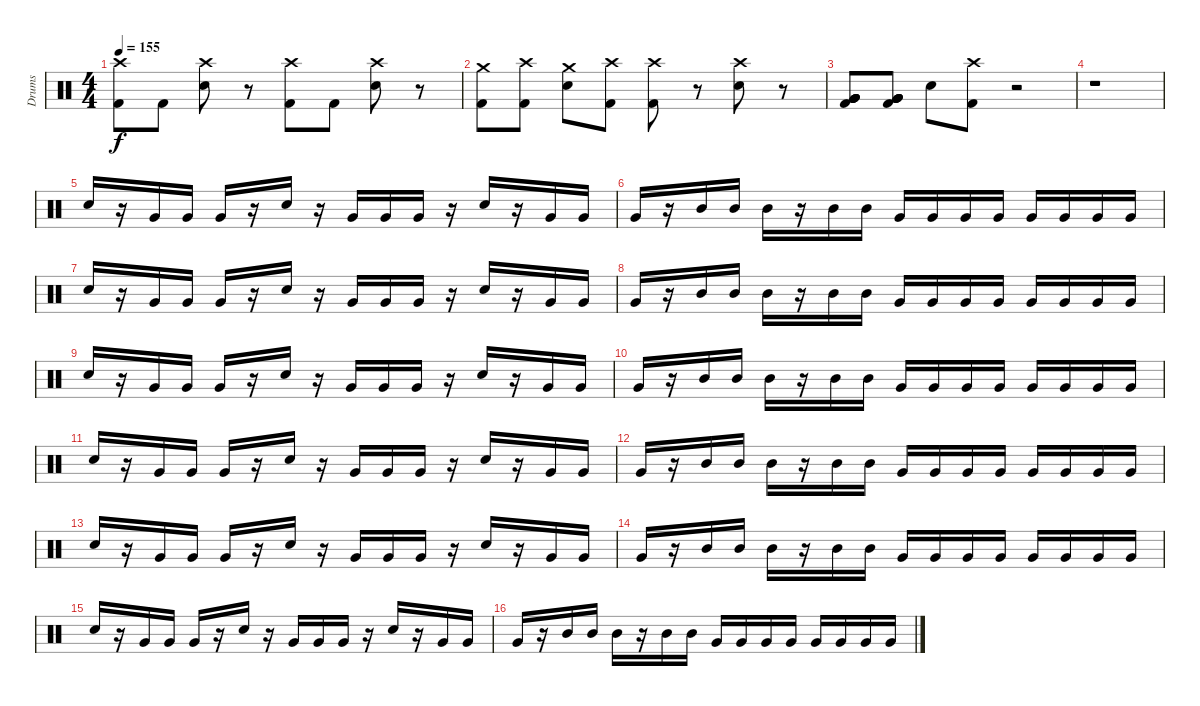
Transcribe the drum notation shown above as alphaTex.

\track ("Drums" "Drums") {instrument percussion}
\staff {score}
\articulation defaults
\ts (4 4)
\tempo 155
\clef neutral
\ks c
("Crash high (hit)" "Kick (hit) 2").8{dy f} "Kick (hit) 2".8 ("Crash high (hit)" "Snare (hit) 2").8 r.8 ("Crash high (hit)" "Kick (hit) 2").8 "Kick (hit) 2".8 ("Crash high (hit)" "Snare (hit) 2").8 r.8 |
("Crash medium (hit)" "Kick (hit) 2").8 ("Crash high (hit)" "Kick (hit) 2").8 ("Crash medium (hit)" "Snare (hit) 2").8 ("Crash high (hit)" "Kick (hit) 2").8 ("Crash high (hit)" "Kick (hit) 2").8 r.8 ("Crash high (hit)" "Snare (hit) 2").8 r.8 |
("Kick (hit) 2" "Very Low Tom (hit)" "Very Low Tom (hit)" "Very Low Tom (hit)" "Very Low Tom (hit)").8 ("Kick (hit) 2" "Very Low Tom (hit)" "Very Low Tom (hit)" "Very Low Tom (hit)" "Very Low Tom (hit)").8 "Snare (hit) 2".8 ("Kick (hit) 2" "Crash high (hit)").8 r.2 |
r.1 |
"Snare (hit) 2".16 r.16 "Very Low Tom (hit)".16 "Very Low Tom (hit)".16 "Very Low Tom (hit)".16 r.16 "Snare (hit) 2".16 r.16 "Very Low Tom (hit)".16 "Very Low Tom (hit)".16 "Very Low Tom (hit)".16 r.16 "Snare (hit) 2".16 r.16 "Very Low Tom (hit)".16 "Very Low Tom (hit)".16 |
"Very Low Tom (hit)".16 r.16 "Mid Tom (hit)".16 "Mid Tom (hit)".16 "Mid Tom (hit)".16 r.16 "Mid Tom (hit)".16 "Mid Tom (hit)".16 "Very Low Tom (hit)".16 "Very Low Tom (hit)".16 "Very Low Tom (hit)".16 "Very Low Tom (hit)".16 "Very Low Tom (hit)".16 "Very Low Tom (hit)".16 "Very Low Tom (hit)".16 "Very Low Tom (hit)".16 |
"Snare (hit) 2".16 r.16 "Very Low Tom (hit)".16 "Very Low Tom (hit)".16 "Very Low Tom (hit)".16 r.16 "Snare (hit) 2".16 r.16 "Very Low Tom (hit)".16 "Very Low Tom (hit)".16 "Very Low Tom (hit)".16 r.16 "Snare (hit) 2".16 r.16 "Very Low Tom (hit)".16 "Very Low Tom (hit)".16 |
"Very Low Tom (hit)".16 r.16 "Mid Tom (hit)".16 "Mid Tom (hit)".16 "Mid Tom (hit)".16 r.16 "Mid Tom (hit)".16 "Mid Tom (hit)".16 "Very Low Tom (hit)".16 "Very Low Tom (hit)".16 "Very Low Tom (hit)".16 "Very Low Tom (hit)".16 "Very Low Tom (hit)".16 "Very Low Tom (hit)".16 "Very Low Tom (hit)".16 "Very Low Tom (hit)".16 |
"Snare (hit) 2".16 r.16 "Very Low Tom (hit)".16 "Very Low Tom (hit)".16 "Very Low Tom (hit)".16 r.16 "Snare (hit) 2".16 r.16 "Very Low Tom (hit)".16 "Very Low Tom (hit)".16 "Very Low Tom (hit)".16 r.16 "Snare (hit) 2".16 r.16 "Very Low Tom (hit)".16 "Very Low Tom (hit)".16 |
"Very Low Tom (hit)".16 r.16 "Mid Tom (hit)".16 "Mid Tom (hit)".16 "Mid Tom (hit)".16 r.16 "Mid Tom (hit)".16 "Mid Tom (hit)".16 "Very Low Tom (hit)".16 "Very Low Tom (hit)".16 "Very Low Tom (hit)".16 "Very Low Tom (hit)".16 "Very Low Tom (hit)".16 "Very Low Tom (hit)".16 "Very Low Tom (hit)".16 "Very Low Tom (hit)".16 |
"Snare (hit) 2".16 r.16 "Very Low Tom (hit)".16 "Very Low Tom (hit)".16 "Very Low Tom (hit)".16 r.16 "Snare (hit) 2".16 r.16 "Very Low Tom (hit)".16 "Very Low Tom (hit)".16 "Very Low Tom (hit)".16 r.16 "Snare (hit) 2".16 r.16 "Very Low Tom (hit)".16 "Very Low Tom (hit)".16 |
"Very Low Tom (hit)".16 r.16 "Mid Tom (hit)".16 "Mid Tom (hit)".16 "Mid Tom (hit)".16 r.16 "Mid Tom (hit)".16 "Mid Tom (hit)".16 "Very Low Tom (hit)".16 "Very Low Tom (hit)".16 "Very Low Tom (hit)".16 "Very Low Tom (hit)".16 "Very Low Tom (hit)".16 "Very Low Tom (hit)".16 "Very Low Tom (hit)".16 "Very Low Tom (hit)".16 |
"Snare (hit) 2".16 r.16 "Very Low Tom (hit)".16 "Very Low Tom (hit)".16 "Very Low Tom (hit)".16 r.16 "Snare (hit) 2".16 r.16 "Very Low Tom (hit)".16 "Very Low Tom (hit)".16 "Very Low Tom (hit)".16 r.16 "Snare (hit) 2".16 r.16 "Very Low Tom (hit)".16 "Very Low Tom (hit)".16 |
"Very Low Tom (hit)".16 r.16 "Mid Tom (hit)".16 "Mid Tom (hit)".16 "Mid Tom (hit)".16 r.16 "Mid Tom (hit)".16 "Mid Tom (hit)".16 "Very Low Tom (hit)".16 "Very Low Tom (hit)".16 "Very Low Tom (hit)".16 "Very Low Tom (hit)".16 "Very Low Tom (hit)".16 "Very Low Tom (hit)".16 "Very Low Tom (hit)".16 "Very Low Tom (hit)".16 |
"Snare (hit) 2".16 r.16 "Very Low Tom (hit)".16 "Very Low Tom (hit)".16 "Very Low Tom (hit)".16 r.16 "Snare (hit) 2".16 r.16 "Very Low Tom (hit)".16 "Very Low Tom (hit)".16 "Very Low Tom (hit)".16 r.16 "Snare (hit) 2".16 r.16 "Very Low Tom (hit)".16 "Very Low Tom (hit)".16 |
"Very Low Tom (hit)".16 r.16 "Mid Tom (hit)".16 "Mid Tom (hit)".16 "Mid Tom (hit)".16 r.16 "Mid Tom (hit)".16 "Mid Tom (hit)".16 "Very Low Tom (hit)".16 "Very Low Tom (hit)".16 "Very Low Tom (hit)".16 "Very Low Tom (hit)".16 "Very Low Tom (hit)".16 "Very Low Tom (hit)".16 "Very Low Tom (hit)".16 "Very Low Tom (hit)".16
